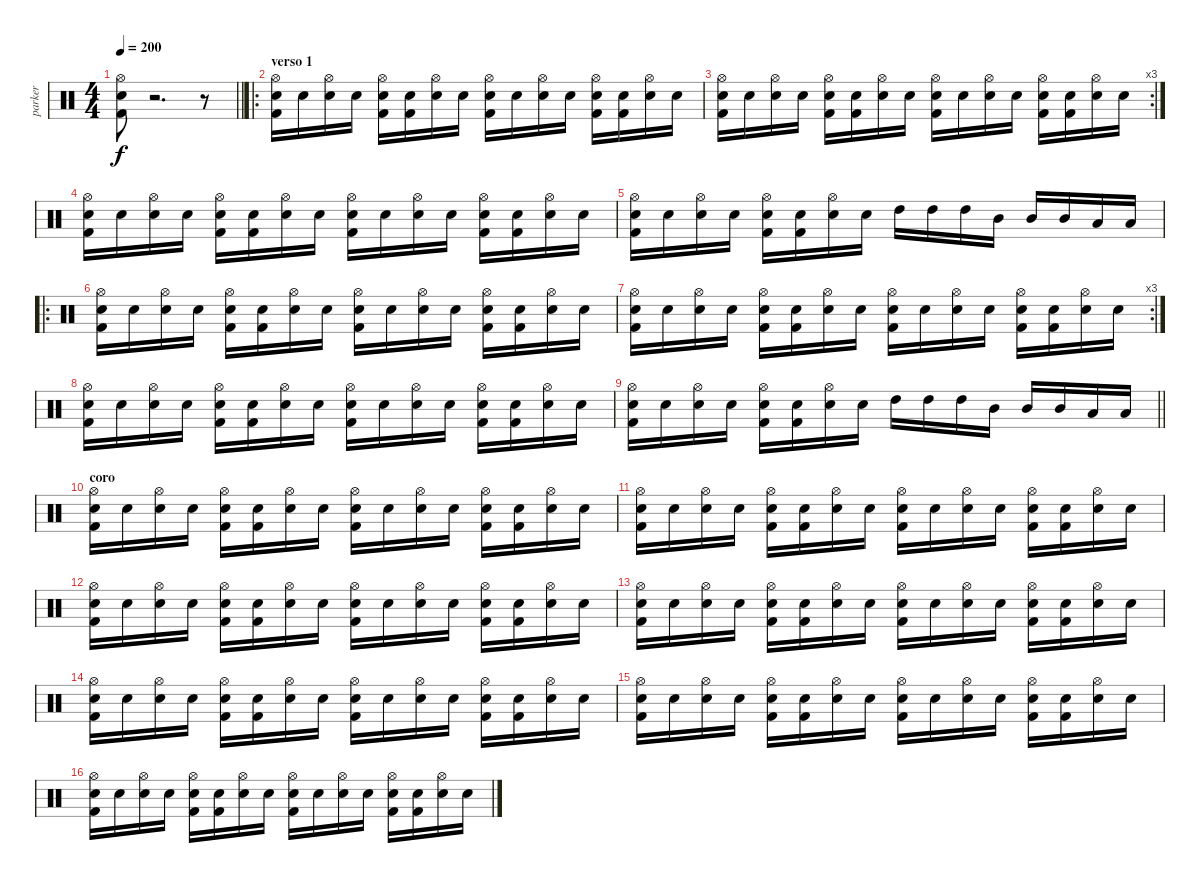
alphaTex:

\track ("parker" "parker") {instrument percussion}
\staff {score}
\articulation defaults
\ts (4 4)
\tempo 200
\clef neutral
\barLineRight lightlight
\ks c
("Hi-Hat (open)" "Kick (hit) 2" "Snare (hit)").8{dy f} r.2{d} r.8 |
\ro
\section ("" "verso 1")
("Hi-Hat (open)" "Kick (hit) 2" "Snare (hit)").16 "Snare (hit)".16 ("Hi-Hat (open)" "Electric Snare (hit)").16 "Snare (hit)".16 ("Hi-Hat (open)" "Kick (hit) 2" "Snare (hit)").16 ("Kick (hit) 2" "Snare (hit)").16 ("Hi-Hat (open)" "Electric Snare (hit)").16 "Snare (hit)".16 ("Hi-Hat (open)" "Kick (hit) 2" "Snare (hit)").16 "Snare (hit)".16 ("Hi-Hat (open)" "Electric Snare (hit)").16 "Snare (hit)".16 ("Hi-Hat (open)" "Kick (hit) 2" "Snare (hit)").16 ("Kick (hit) 2" "Snare (hit)").16 ("Hi-Hat (open)" "Electric Snare (hit)").16 "Snare (hit)".16 |
\rc 3
("Hi-Hat (open)" "Kick (hit) 2" "Snare (hit)").16 "Snare (hit)".16 ("Hi-Hat (open)" "Electric Snare (hit)").16 "Snare (hit)".16 ("Hi-Hat (open)" "Kick (hit) 2" "Snare (hit)").16 ("Kick (hit) 2" "Snare (hit)").16 ("Hi-Hat (open)" "Electric Snare (hit)").16 "Snare (hit)".16 ("Hi-Hat (open)" "Kick (hit) 2" "Snare (hit)").16 "Snare (hit)".16 ("Hi-Hat (open)" "Electric Snare (hit)").16 "Snare (hit)".16 ("Hi-Hat (open)" "Kick (hit) 2" "Snare (hit)").16 ("Kick (hit) 2" "Snare (hit)").16 ("Hi-Hat (open)" "Electric Snare (hit)").16 "Snare (hit)".16 |
("Hi-Hat (open)" "Kick (hit) 2" "Snare (hit)").16 "Snare (hit)".16 ("Hi-Hat (open)" "Electric Snare (hit)").16 "Snare (hit)".16 ("Hi-Hat (open)" "Kick (hit) 2" "Snare (hit)").16 ("Kick (hit) 2" "Snare (hit)").16 ("Hi-Hat (open)" "Electric Snare (hit)").16 "Snare (hit)".16 ("Hi-Hat (open)" "Kick (hit) 2" "Snare (hit)").16 "Snare (hit)".16 ("Hi-Hat (open)" "Electric Snare (hit)").16 "Snare (hit)".16 ("Hi-Hat (open)" "Kick (hit) 2" "Snare (hit)").16 ("Kick (hit) 2" "Snare (hit)").16 ("Hi-Hat (open)" "Electric Snare (hit)").16 "Snare (hit)".16 |
("Hi-Hat (open)" "Kick (hit) 2" "Snare (hit)").16 "Snare (hit)".16 ("Hi-Hat (open)" "Electric Snare (hit)").16 "Snare (hit)".16 ("Hi-Hat (open)" "Kick (hit) 2" "Snare (hit)").16 ("Kick (hit) 2" "Snare (hit)").16 ("Hi-Hat (open)" "Electric Snare (hit)").16 "Snare (hit)".16 "High Tom (hit)".16 "High Tom (hit)".16 "High Tom (hit)".16 "Mid Tom (hit)".16 "Mid Tom (hit)".16 "Mid Tom (hit)".16 "Low Tom (hit)".16 "Low Tom (hit)".16 |
\ro
("Hi-Hat (open)" "Kick (hit) 2" "Snare (hit)").16 "Snare (hit)".16 ("Hi-Hat (open)" "Electric Snare (hit)").16 "Snare (hit)".16 ("Hi-Hat (open)" "Kick (hit) 2" "Snare (hit)").16 ("Kick (hit) 2" "Snare (hit)").16 ("Hi-Hat (open)" "Electric Snare (hit)").16 "Snare (hit)".16 ("Hi-Hat (open)" "Kick (hit) 2" "Snare (hit)").16 "Snare (hit)".16 ("Hi-Hat (open)" "Electric Snare (hit)").16 "Snare (hit)".16 ("Hi-Hat (open)" "Kick (hit) 2" "Snare (hit)").16 ("Kick (hit) 2" "Snare (hit)").16 ("Hi-Hat (open)" "Electric Snare (hit)").16 "Snare (hit)".16 |
\rc 3
("Hi-Hat (open)" "Kick (hit) 2" "Snare (hit)").16 "Snare (hit)".16 ("Hi-Hat (open)" "Electric Snare (hit)").16 "Snare (hit)".16 ("Hi-Hat (open)" "Kick (hit) 2" "Snare (hit)").16 ("Kick (hit) 2" "Snare (hit)").16 ("Hi-Hat (open)" "Electric Snare (hit)").16 "Snare (hit)".16 ("Hi-Hat (open)" "Kick (hit) 2" "Snare (hit)").16 "Snare (hit)".16 ("Hi-Hat (open)" "Electric Snare (hit)").16 "Snare (hit)".16 ("Hi-Hat (open)" "Kick (hit) 2" "Snare (hit)").16 ("Kick (hit) 2" "Snare (hit)").16 ("Hi-Hat (open)" "Electric Snare (hit)").16 "Snare (hit)".16 |
("Hi-Hat (open)" "Kick (hit) 2" "Snare (hit)").16 "Snare (hit)".16 ("Hi-Hat (open)" "Electric Snare (hit)").16 "Snare (hit)".16 ("Hi-Hat (open)" "Kick (hit) 2" "Snare (hit)").16 ("Kick (hit) 2" "Snare (hit)").16 ("Hi-Hat (open)" "Electric Snare (hit)").16 "Snare (hit)".16 ("Hi-Hat (open)" "Kick (hit) 2" "Snare (hit)").16 "Snare (hit)".16 ("Hi-Hat (open)" "Electric Snare (hit)").16 "Snare (hit)".16 ("Hi-Hat (open)" "Kick (hit) 2" "Snare (hit)").16 ("Kick (hit) 2" "Snare (hit)").16 ("Hi-Hat (open)" "Electric Snare (hit)").16 "Snare (hit)".16 |
\barLineRight lightlight
("Hi-Hat (open)" "Kick (hit) 2" "Snare (hit)").16 "Snare (hit)".16 ("Hi-Hat (open)" "Electric Snare (hit)").16 "Snare (hit)".16 ("Hi-Hat (open)" "Kick (hit) 2" "Snare (hit)").16 ("Kick (hit) 2" "Snare (hit)").16 ("Hi-Hat (open)" "Electric Snare (hit)").16 "Snare (hit)".16 "High Tom (hit)".16 "High Tom (hit)".16 "High Tom (hit)".16 "Mid Tom (hit)".16 "Mid Tom (hit)".16 "Mid Tom (hit)".16 "Low Tom (hit)".16 "Low Tom (hit)".16 |
\section ("" "coro")
("Hi-Hat (open)" "Kick (hit) 2" "Snare (hit)").16 "Snare (hit)".16 ("Hi-Hat (open)" "Electric Snare (hit)").16 "Snare (hit)".16 ("Hi-Hat (open)" "Kick (hit) 2" "Snare (hit)").16 ("Kick (hit) 2" "Snare (hit)").16 ("Hi-Hat (open)" "Electric Snare (hit)").16 "Snare (hit)".16 ("Hi-Hat (open)" "Kick (hit) 2" "Snare (hit)").16 "Snare (hit)".16 ("Hi-Hat (open)" "Electric Snare (hit)").16 "Snare (hit)".16 ("Hi-Hat (open)" "Kick (hit) 2" "Snare (hit)").16 ("Kick (hit) 2" "Snare (hit)").16 ("Hi-Hat (open)" "Electric Snare (hit)").16 "Snare (hit)".16 |
("Hi-Hat (open)" "Kick (hit) 2" "Snare (hit)").16 "Snare (hit)".16 ("Hi-Hat (open)" "Electric Snare (hit)").16 "Snare (hit)".16 ("Hi-Hat (open)" "Kick (hit) 2" "Snare (hit)").16 ("Kick (hit) 2" "Snare (hit)").16 ("Hi-Hat (open)" "Electric Snare (hit)").16 "Snare (hit)".16 ("Hi-Hat (open)" "Kick (hit) 2" "Snare (hit)").16 "Snare (hit)".16 ("Hi-Hat (open)" "Electric Snare (hit)").16 "Snare (hit)".16 ("Hi-Hat (open)" "Kick (hit) 2" "Snare (hit)").16 ("Kick (hit) 2" "Snare (hit)").16 ("Hi-Hat (open)" "Electric Snare (hit)").16 "Snare (hit)".16 |
("Hi-Hat (open)" "Kick (hit) 2" "Snare (hit)").16 "Snare (hit)".16 ("Hi-Hat (open)" "Electric Snare (hit)").16 "Snare (hit)".16 ("Hi-Hat (open)" "Kick (hit) 2" "Snare (hit)").16 ("Kick (hit) 2" "Snare (hit)").16 ("Hi-Hat (open)" "Electric Snare (hit)").16 "Snare (hit)".16 ("Hi-Hat (open)" "Kick (hit) 2" "Snare (hit)").16 "Snare (hit)".16 ("Hi-Hat (open)" "Electric Snare (hit)").16 "Snare (hit)".16 ("Hi-Hat (open)" "Kick (hit) 2" "Snare (hit)").16 ("Kick (hit) 2" "Snare (hit)").16 ("Hi-Hat (open)" "Electric Snare (hit)").16 "Snare (hit)".16 |
("Hi-Hat (open)" "Kick (hit) 2" "Snare (hit)").16 "Snare (hit)".16 ("Hi-Hat (open)" "Electric Snare (hit)").16 "Snare (hit)".16 ("Hi-Hat (open)" "Kick (hit) 2" "Snare (hit)").16 ("Kick (hit) 2" "Snare (hit)").16 ("Hi-Hat (open)" "Electric Snare (hit)").16 "Snare (hit)".16 ("Hi-Hat (open)" "Kick (hit) 2" "Snare (hit)").16 "Snare (hit)".16 ("Hi-Hat (open)" "Electric Snare (hit)").16 "Snare (hit)".16 ("Hi-Hat (open)" "Kick (hit) 2" "Snare (hit)").16 ("Kick (hit) 2" "Snare (hit)").16 ("Hi-Hat (open)" "Electric Snare (hit)").16 "Snare (hit)".16 |
("Hi-Hat (open)" "Kick (hit) 2" "Snare (hit)").16 "Snare (hit)".16 ("Hi-Hat (open)" "Electric Snare (hit)").16 "Snare (hit)".16 ("Hi-Hat (open)" "Kick (hit) 2" "Snare (hit)").16 ("Kick (hit) 2" "Snare (hit)").16 ("Hi-Hat (open)" "Electric Snare (hit)").16 "Snare (hit)".16 ("Hi-Hat (open)" "Kick (hit) 2" "Snare (hit)").16 "Snare (hit)".16 ("Hi-Hat (open)" "Electric Snare (hit)").16 "Snare (hit)".16 ("Hi-Hat (open)" "Kick (hit) 2" "Snare (hit)").16 ("Kick (hit) 2" "Snare (hit)").16 ("Hi-Hat (open)" "Electric Snare (hit)").16 "Snare (hit)".16 |
("Hi-Hat (open)" "Kick (hit) 2" "Snare (hit)").16 "Snare (hit)".16 ("Hi-Hat (open)" "Electric Snare (hit)").16 "Snare (hit)".16 ("Hi-Hat (open)" "Kick (hit) 2" "Snare (hit)").16 ("Kick (hit) 2" "Snare (hit)").16 ("Hi-Hat (open)" "Electric Snare (hit)").16 "Snare (hit)".16 ("Hi-Hat (open)" "Kick (hit) 2" "Snare (hit)").16 "Snare (hit)".16 ("Hi-Hat (open)" "Electric Snare (hit)").16 "Snare (hit)".16 ("Hi-Hat (open)" "Kick (hit) 2" "Snare (hit)").16 ("Kick (hit) 2" "Snare (hit)").16 ("Hi-Hat (open)" "Electric Snare (hit)").16 "Snare (hit)".16 |
("Hi-Hat (open)" "Kick (hit) 2" "Snare (hit)").16 "Snare (hit)".16 ("Hi-Hat (open)" "Electric Snare (hit)").16 "Snare (hit)".16 ("Hi-Hat (open)" "Kick (hit) 2" "Snare (hit)").16 ("Kick (hit) 2" "Snare (hit)").16 ("Hi-Hat (open)" "Electric Snare (hit)").16 "Snare (hit)".16 ("Hi-Hat (open)" "Kick (hit) 2" "Snare (hit)").16 "Snare (hit)".16 ("Hi-Hat (open)" "Electric Snare (hit)").16 "Snare (hit)".16 ("Hi-Hat (open)" "Kick (hit) 2" "Snare (hit)").16 ("Kick (hit) 2" "Snare (hit)").16 ("Hi-Hat (open)" "Electric Snare (hit)").16 "Snare (hit)".16
